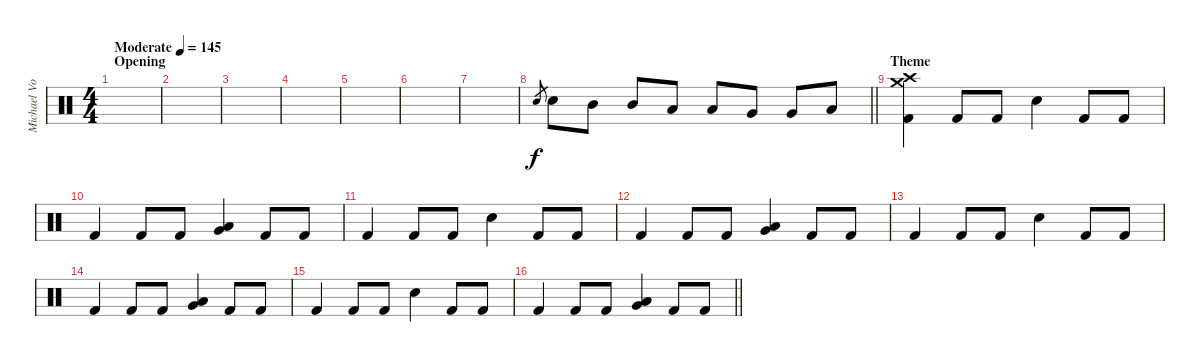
\track ("Michael Von Knorring" "Michael Vo") {instrument percussion}
\staff {score}
\articulation defaults
\ts (4 4)
\section ("" "Opening")
\tempo (145 "Moderate")
\clef neutral
\ks c
|
|
|
|
|
|
|
\barLineRight lightlight "Snare (hit) 2".8{gr} "Snare (hit) 2".8 "Mid Tom (hit)".8 "Mid Tom (hit)".8 "Low Tom (hit)".8 "Low Tom (hit)".8 "Very Low Tom (hit)".8 "Very Low Tom (hit)".8 "Low Floor Tom (hit)".8
|
\section ("" "Theme")
("Crash medium (hit)" "Crash high (hit)" "Kick (hit) 2").4 "Kick (hit) 2".8 "Kick (hit) 2".8 "Snare (hit) 2".4 "Kick (hit) 2".8 "Kick (hit) 2".8 |
"Kick (hit) 2".4 "Kick (hit) 2".8 "Kick (hit) 2".8 ("Low Tom (hit)" "Very Low Tom (hit)").4 "Kick (hit) 2".8 "Kick (hit) 2".8 |
"Kick (hit) 2".4 "Kick (hit) 2".8 "Kick (hit) 2".8 "Snare (hit) 2".4 "Kick (hit) 2".8 "Kick (hit) 2".8 |
"Kick (hit) 2".4 "Kick (hit) 2".8 "Kick (hit) 2".8 ("Low Tom (hit)" "Very Low Tom (hit)").4 "Kick (hit) 2".8 "Kick (hit) 2".8 |
"Kick (hit) 2".4 "Kick (hit) 2".8 "Kick (hit) 2".8 "Snare (hit) 2".4 "Kick (hit) 2".8 "Kick (hit) 2".8 |
"Kick (hit) 2".4 "Kick (hit) 2".8 "Kick (hit) 2".8 ("Low Tom (hit)" "Very Low Tom (hit)").4 "Kick (hit) 2".8 "Kick (hit) 2".8 |
"Kick (hit) 2".4 "Kick (hit) 2".8 "Kick (hit) 2".8 "Snare (hit) 2".4 "Kick (hit) 2".8 "Kick (hit) 2".8 |
\barLineRight lightlight "Kick (hit) 2".4 "Kick (hit) 2".8 "Kick (hit) 2".8
("Low Tom (hit)" "Very Low Tom (hit)").4 "Kick (hit) 2".8 "Kick (hit) 2".8
